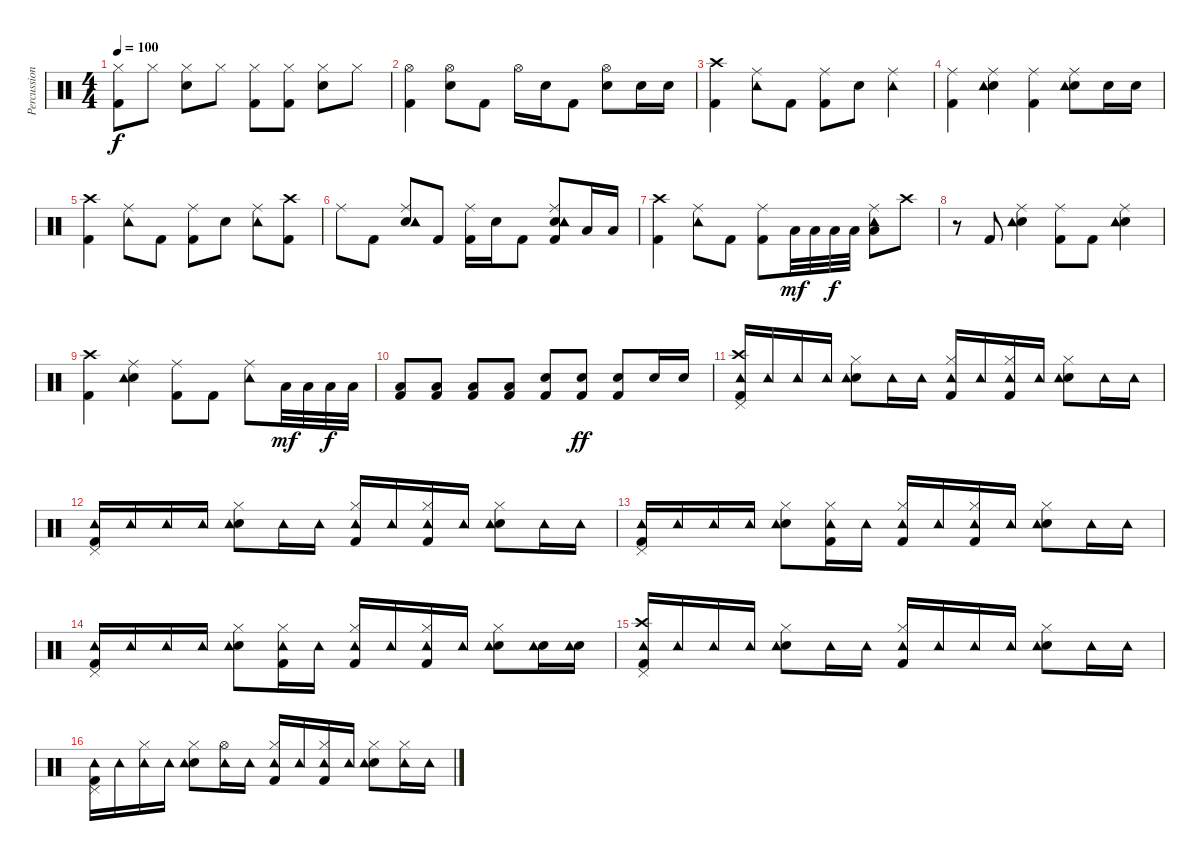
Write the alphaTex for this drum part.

\track ("Percussions" "Percussion") {instrument percussion}
\staff {score}
\articulation defaults
\ts (4 4)
\tempo 100
\clef neutral
\ks c
("Kick (hit) 2" "Hi-Hat (closed)").8{dy f} "Hi-Hat (closed)".8 ("Snare (hit) 2" "Hi-Hat (closed)").8 "Hi-Hat (closed)".8 ("Kick (hit) 2" "Hi-Hat (closed)").8 ("Kick (hit) 2" "Hi-Hat (closed)").8 ("Snare (hit) 2" "Hi-Hat (closed)").8 "Hi-Hat (closed)".8 |
("Kick (hit) 2" "Hi-Hat (open)").4 ("Snare (hit) 2" "Hi-Hat (open)").8 "Kick (hit) 2".8 "Hi-Hat (open)".16 "Snare (hit) 2".16 "Kick (hit) 2".8 ("Snare (hit) 2" "Hi-Hat (open)").8 "Snare (hit) 2".16 "Snare (hit) 2".16 |
("Kick (hit) 2" "Crash high (hit)").4 ("Ride (middle)" "Tambourine (hit)").8 "Kick (hit) 2".8 ("Kick (hit) 2" "Ride (middle)").8 "Snare (hit) 2".8 ("Ride (middle)" "Tambourine (hit)").4 |
("Kick (hit) 2" "Ride (middle)").4 ("Snare (hit) 2" "Ride (middle)" "Tambourine (hit)").4 ("Kick (hit) 2" "Ride (middle)").4 ("Snare (hit) 2" "Ride (middle)" "Tambourine (hit)").8 "Snare (hit) 2".16 "Snare (hit) 2".16 |
("Kick (hit) 2" "Crash high (hit)").4 ("Ride (middle)" "Tambourine (hit)").8 "Kick (hit) 2".8 ("Kick (hit) 2" "Ride (middle)").8 "Snare (hit) 2".8 ("Ride (middle)" "Tambourine (hit)").8 ("Kick (hit) 2" "Crash high (hit)").8 |
"Ride (middle)".8 "Kick (hit) 2".8 ("Snare (hit) 2" "Ride (middle)" "Tambourine (hit)").8 "Kick (hit) 2".8 ("Kick (hit) 2" "Ride (middle)").16 "Snare (hit) 2".16 "Kick (hit) 2".8 ("Kick (hit) 2" "Snare (hit) 2" "Ride (middle)" "Tambourine (hit)").8 "Low Floor Tom (hit)".16 "Low Floor Tom (hit)".16 |
("Kick (hit) 2" "Crash high (hit)").4 ("Ride (middle)" "Tambourine (hit)").8 "Kick (hit) 2".8 ("Kick (hit) 2" "Ride (middle)").8 "Low Tom (hit)".32{dy mf} "Low Tom (hit)".32 "Low Tom (hit)".32{dy f} "Low Tom (hit)".32 ("Low Floor Tom (hit)" "Ride (middle)" "Tambourine (hit)").8 "Crash high (hit)".8 |
r.8 "Kick (hit) 2".8 ("Snare (hit) 2" "Ride (middle)" "Tambourine (hit)").4 ("Kick (hit) 2" "Ride (middle)").8 "Kick (hit) 2".8 ("Snare (hit) 2" "Ride (middle)" "Tambourine (hit)").4 |
("Kick (hit) 2" "Crash high (hit)").4 ("Snare (hit) 2" "Ride (middle)" "Tambourine (hit)").4 ("Kick (hit) 2" "Ride (middle)").8 "Kick (hit) 2".8 ("Ride (middle)" "Tambourine (hit)").8 "Low Tom (hit)".32{dy mf} "Low Tom (hit)".32 "Low Tom (hit)".32{dy f} "Low Tom (hit)".32 |
("Kick (hit) 2" "Low Floor Tom (hit)").8 ("Kick (hit) 2" "Low Floor Tom (hit)").8 ("Kick (hit) 2" "Low Floor Tom (hit)").8 ("Kick (hit) 2" "Low Floor Tom (hit)").8 ("Kick (hit) 2" "Snare (hit) 2").8 ("Kick (hit) 2" "Snare (hit) 2").8{dy ff} ("Kick (hit) 2" "Snare (hit) 2").8 "Snare (hit) 2".16 "Snare (hit) 2".16 |
("Kick (hit) 2" "Pedal Hi-Hat (hit)" "Crash high (hit)" "Tambourine (hit)").16 "Tambourine (hit)".16 "Tambourine (hit)".16 "Tambourine (hit)".16 ("Snare (hit) 2" "Hi-Hat (closed)" "Tambourine (hit)").8 "Tambourine (hit)".16 "Tambourine (hit)".16 ("Kick (hit) 2" "Hi-Hat (closed)" "Tambourine (hit)").16 "Tambourine (hit)".16 ("Kick (hit) 2" "Hi-Hat (closed)" "Tambourine (hit)").16 "Tambourine (hit)".16 ("Snare (hit) 2" "Hi-Hat (closed)" "Tambourine (hit)").8 "Tambourine (hit)".16 "Tambourine (hit)".16 |
("Kick (hit) 2" "Pedal Hi-Hat (hit)" "Tambourine (hit)").16 "Tambourine (hit)".16 "Tambourine (hit)".16 "Tambourine (hit)".16 ("Snare (hit) 2" "Hi-Hat (closed)" "Tambourine (hit)").8 "Tambourine (hit)".16 "Tambourine (hit)".16 ("Kick (hit) 2" "Hi-Hat (closed)" "Tambourine (hit)").16 "Tambourine (hit)".16 ("Kick (hit) 2" "Hi-Hat (closed)" "Tambourine (hit)").16 "Tambourine (hit)".16 ("Snare (hit) 2" "Hi-Hat (closed)" "Tambourine (hit)").8 "Tambourine (hit)".16 "Tambourine (hit)".16 |
("Kick (hit) 2" "Pedal Hi-Hat (hit)" "Tambourine (hit)").16 "Tambourine (hit)".16 "Tambourine (hit)".16 "Tambourine (hit)".16 ("Snare (hit) 2" "Hi-Hat (closed)" "Tambourine (hit)").8 ("Kick (hit) 2" "Hi-Hat (closed)" "Tambourine (hit)").16 "Tambourine (hit)".16 ("Kick (hit) 2" "Hi-Hat (closed)" "Tambourine (hit)").16 "Tambourine (hit)".16 ("Kick (hit) 2" "Hi-Hat (closed)" "Tambourine (hit)").16 "Tambourine (hit)".16 ("Snare (hit) 2" "Hi-Hat (closed)" "Tambourine (hit)").8 "Tambourine (hit)".16 "Tambourine (hit)".16 |
("Kick (hit) 2" "Pedal Hi-Hat (hit)" "Tambourine (hit)").16 "Tambourine (hit)".16 "Tambourine (hit)".16 "Tambourine (hit)".16 ("Snare (hit) 2" "Hi-Hat (closed)" "Tambourine (hit)").8 ("Kick (hit) 2" "Hi-Hat (closed)" "Tambourine (hit)").16 "Tambourine (hit)".16 ("Kick (hit) 2" "Hi-Hat (closed)" "Tambourine (hit)").16 "Tambourine (hit)".16 ("Kick (hit) 2" "Hi-Hat (closed)" "Tambourine (hit)").16 "Tambourine (hit)".16 ("Snare (hit) 2" "Hi-Hat (closed)" "Tambourine (hit)").8 ("Snare (hit) 2" "Tambourine (hit)").16 ("Snare (hit) 2" "Tambourine (hit)").16 |
("Kick (hit) 2" "Pedal Hi-Hat (hit)" "Crash high (hit)" "Tambourine (hit)").16 "Tambourine (hit)".16 "Tambourine (hit)".16 "Tambourine (hit)".16 ("Snare (hit) 2" "Hi-Hat (closed)" "Tambourine (hit)").8 "Tambourine (hit)".16 "Tambourine (hit)".16 ("Kick (hit) 2" "Hi-Hat (closed)" "Tambourine (hit)").16 "Tambourine (hit)".16 "Tambourine (hit)".16 "Tambourine (hit)".16 ("Snare (hit) 2" "Hi-Hat (closed)" "Tambourine (hit)").8 "Tambourine (hit)".16 "Tambourine (hit)".16 |
("Kick (hit) 2" "Pedal Hi-Hat (hit)" "Tambourine (hit)").16 "Tambourine (hit)".16 ("Hi-Hat (closed)" "Tambourine (hit)").16 "Tambourine (hit)".16 ("Snare (hit) 2" "Hi-Hat (closed)" "Tambourine (hit)").8 ("Hi-Hat (open)" "Tambourine (hit)").16 "Tambourine (hit)".16 ("Kick (hit) 2" "Hi-Hat (closed)" "Tambourine (hit)").16 "Tambourine (hit)".16 ("Kick (hit) 2" "Hi-Hat (closed)" "Tambourine (hit)").16 "Tambourine (hit)".16 ("Snare (hit) 2" "Hi-Hat (closed)" "Tambourine (hit)").8 ("Hi-Hat (closed)" "Tambourine (hit)").16 "Tambourine (hit)".16
